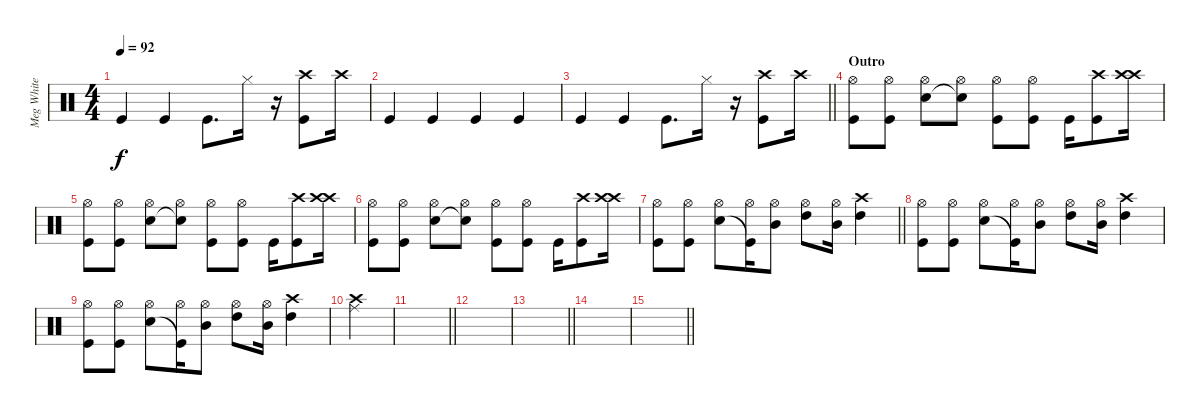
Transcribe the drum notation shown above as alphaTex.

\track ("Meg White" "Meg White") {instrument percussion}
\staff {score}
\articulation defaults
\ts (4 4)
\tempo 92
\clef neutral
\ks c "Kick (hit)".4{dy f} "Kick (hit)".4 "Kick (hit)".8{d} "Hi-Hat (closed)".16
r.16 ("Kick (hit)" "Crash high (hit)").8 "Crash high (hit)".16 |
"Kick (hit)".4 "Kick (hit)".4 "Kick (hit)".4 "Kick (hit)".4 |
\barLineRight lightlight "Kick (hit)".4 "Kick (hit)".4 "Kick (hit)".8{d} "Hi-Hat (closed)".16
r.16 ("Kick (hit)" "Crash high (hit)").8 "Crash high (hit)".16 |
\section ("" "Outro")
("Kick (hit)" "Hi-Hat (open)").8 ("Kick (hit)" "Hi-Hat (open)").8 ("Snare (hit) 2" "Hi-Hat (open)").8 ("Snare (hit)"{t} "Hi-Hat (open)").8 ("Kick (hit)" "Hi-Hat (open)").8 ("Kick (hit)" "Hi-Hat (open)").8 "Kick (hit)".16 ("Kick (hit)" "Crash high (hit)").8 ("Crash high (hit)" "Crash high (hit)").16 |
("Kick (hit)" "Hi-Hat (open)").8 ("Kick (hit)" "Hi-Hat (open)").8 ("Snare (hit) 2" "Hi-Hat (open)").8 ("Snare (hit)"{t} "Hi-Hat (open)").8 ("Kick (hit)" "Hi-Hat (open)").8 ("Kick (hit)" "Hi-Hat (open)").8 "Kick (hit)".16 ("Kick (hit)" "Crash high (hit)").8 ("Crash high (hit)" "Crash high (hit)").16 |
("Kick (hit)" "Hi-Hat (open)").8 ("Kick (hit)" "Hi-Hat (open)").8 ("Snare (hit) 2" "Hi-Hat (open)").8 ("Snare (hit)"{t} "Hi-Hat (open)").8 ("Kick (hit)" "Hi-Hat (open)").8 ("Kick (hit)" "Hi-Hat (open)").8 "Kick (hit)".16 ("Kick (hit)" "Crash high (hit)").8 ("Crash high (hit)" "Crash high (hit)").16 |
\barLineRight lightlight
("Kick (hit)" "Hi-Hat (open)").8 ("Kick (hit)" "Hi-Hat (open)").8 ("Snare (hit) 2" "Hi-Hat (open)").8 ("Kick (hit)"{t} "Hi-Hat (open)").16 ("Mid Tom (hit)" "Hi-Hat (open)").8 ("High Tom (hit)" "Hi-Hat (open)").8 ("Mid Tom (hit)" "Hi-Hat (open)").16 ("High Tom (hit)" "Crash high (hit)").4 |
("Kick (hit)" "Hi-Hat (open)").8 ("Kick (hit)" "Hi-Hat (open)").8 ("Snare (hit) 2" "Hi-Hat (open)").8 ("Kick (hit)"{t} "Hi-Hat (open)").16 ("Mid Tom (hit)" "Hi-Hat (open)").8 ("High Tom (hit)" "Hi-Hat (open)").8 ("Mid Tom (hit)" "Hi-Hat (open)").16 ("High Tom (hit)" "Crash high (hit)").4 |
("Kick (hit)" "Hi-Hat (open)").8 ("Kick (hit)" "Hi-Hat (open)").8 ("Snare (hit) 2" "Hi-Hat (open)").8 ("Kick (hit)"{t} "Hi-Hat (open)").16 ("Mid Tom (hit)" "Hi-Hat (open)").8 ("High Tom (hit)" "Hi-Hat (open)").8 ("Mid Tom (hit)" "Hi-Hat (open)").16 ("High Tom (hit)" "Crash high (hit)").4 |
("Crash high (hit)" "Ride (middle)").4 |
\barLineRight lightlight
|
|
\barLineRight lightlight
|
|
\barLineRight lightlight
